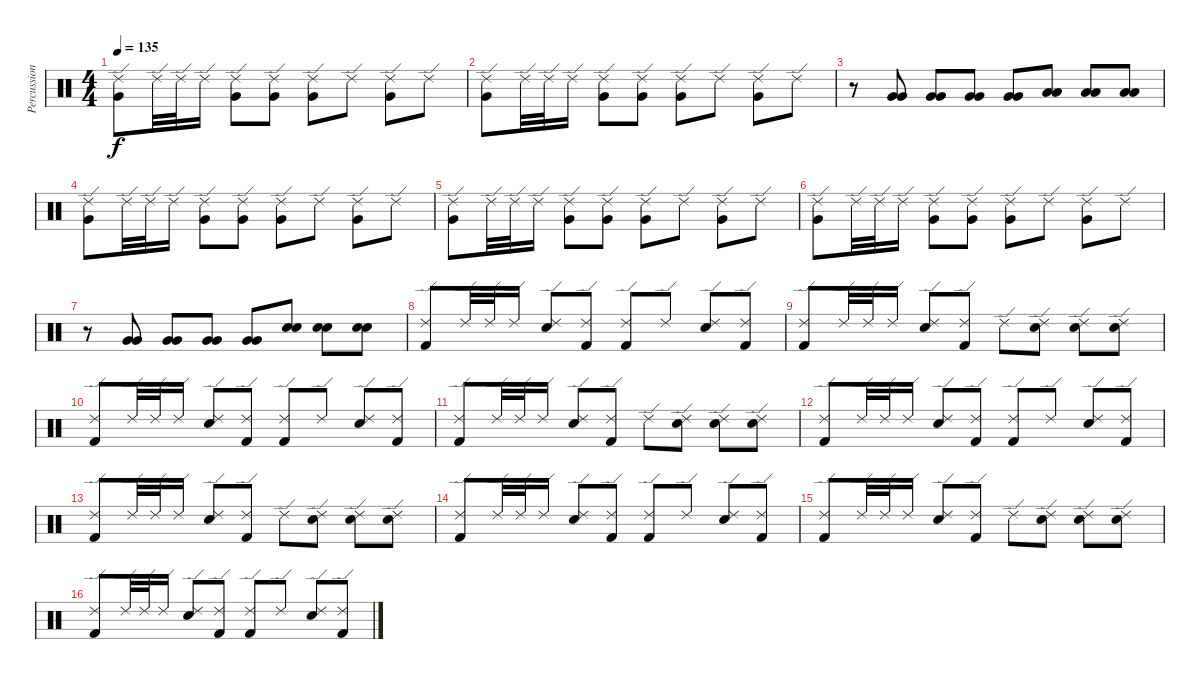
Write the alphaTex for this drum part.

\track ("Percussions" "Percussion") {instrument percussion}
\staff {score}
\articulation defaults
\ts (4 4)
\tempo 135
\clef neutral
\ks c
("Very Low Tom (hit)" "Ride (edge) 2").8{dy f} "Ride (edge) 2".32 "Ride (edge) 2".32 "Ride (edge) 2".16 ("Very Low Tom (hit)" "Ride (edge) 2").8 ("Very Low Tom (hit)" "Ride (edge) 2").8 ("Very Low Tom (hit)" "Ride (edge) 2").8 "Ride (edge) 2".8 ("Very Low Tom (hit)" "Ride (edge) 2").8 "Ride (edge) 2".8 |
("Very Low Tom (hit)" "Ride (edge) 2").8 "Ride (edge) 2".32 "Ride (edge) 2".32 "Ride (edge) 2".16 ("Very Low Tom (hit)" "Ride (edge) 2").8 ("Very Low Tom (hit)" "Ride (edge) 2").8 ("Very Low Tom (hit)" "Ride (edge) 2").8 "Ride (edge) 2".8 ("Very Low Tom (hit)" "Ride (edge) 2").8 "Ride (edge) 2".8 |
r.8 ("Very Low Tom (hit)" "Very Low Tom (hit)").8 ("Very Low Tom (hit)" "Very Low Tom (hit)").8 ("Very Low Tom (hit)" "Very Low Tom (hit)").8 ("Very Low Tom (hit)" "Very Low Tom (hit)").8 ("Low Floor Tom (hit)" "Low Floor Tom (hit)").8 ("Low Floor Tom (hit)" "Low Floor Tom (hit)").8 ("Low Floor Tom (hit)" "Low Floor Tom (hit)").8 |
("Very Low Tom (hit)" "Ride (edge) 2").8 "Ride (edge) 2".32 "Ride (edge) 2".32 "Ride (edge) 2".16 ("Very Low Tom (hit)" "Ride (edge) 2").8 ("Very Low Tom (hit)" "Ride (edge) 2").8 ("Very Low Tom (hit)" "Ride (edge) 2").8 "Ride (edge) 2".8 ("Very Low Tom (hit)" "Ride (edge) 2").8 "Ride (edge) 2".8 |
("Very Low Tom (hit)" "Ride (edge) 2").8 "Ride (edge) 2".32 "Ride (edge) 2".32 "Ride (edge) 2".16 ("Very Low Tom (hit)" "Ride (edge) 2").8 ("Very Low Tom (hit)" "Ride (edge) 2").8 ("Very Low Tom (hit)" "Ride (edge) 2").8 "Ride (edge) 2".8 ("Very Low Tom (hit)" "Ride (edge) 2").8 "Ride (edge) 2".8 |
("Very Low Tom (hit)" "Ride (edge) 2").8 "Ride (edge) 2".32 "Ride (edge) 2".32 "Ride (edge) 2".16 ("Very Low Tom (hit)" "Ride (edge) 2").8 ("Very Low Tom (hit)" "Ride (edge) 2").8 ("Very Low Tom (hit)" "Ride (edge) 2").8 "Ride (edge) 2".8 ("Very Low Tom (hit)" "Ride (edge) 2").8 "Ride (edge) 2".8 |
r.8 ("Very Low Tom (hit)" "Very Low Tom (hit)").8 ("Very Low Tom (hit)" "Very Low Tom (hit)").8 ("Very Low Tom (hit)" "Very Low Tom (hit)").8 ("Very Low Tom (hit)" "Very Low Tom (hit)").8 ("Snare (hit) 2" "Snare (hit) 2").8 ("Snare (hit) 2" "Snare (hit) 2").8 ("Snare (hit) 2" "Snare (hit) 2").8 |
("Kick (hit) 2" "Ride (edge) 2").8 "Ride (edge) 2".32 "Ride (edge) 2".32 "Ride (edge) 2".16 ("Snare (hit) 2" "Ride (edge) 2").8 ("Kick (hit) 2" "Ride (edge) 2").8 ("Kick (hit) 2" "Ride (edge) 2").8 "Ride (edge) 2".8 ("Snare (hit) 2" "Ride (edge) 2").8 ("Kick (hit) 2" "Ride (edge) 2").8 |
("Kick (hit) 2" "Ride (edge) 2").8 "Ride (edge) 2".32 "Ride (edge) 2".32 "Ride (edge) 2".16 ("Snare (hit) 2" "Ride (edge) 2").8 ("Kick (hit) 2" "Ride (edge) 2").8 "Ride (edge) 2".8 ("Snare (hit) 2" "Ride (edge) 2").8 ("Snare (hit) 2" "Ride (edge) 2").8 ("Snare (hit) 2" "Ride (edge) 2").8 |
("Kick (hit) 2" "Ride (edge) 2").8 "Ride (edge) 2".32 "Ride (edge) 2".32 "Ride (edge) 2".16 ("Snare (hit) 2" "Ride (edge) 2").8 ("Kick (hit) 2" "Ride (edge) 2").8 ("Kick (hit) 2" "Ride (edge) 2").8 "Ride (edge) 2".8 ("Snare (hit) 2" "Ride (edge) 2").8 ("Kick (hit) 2" "Ride (edge) 2").8 |
("Kick (hit) 2" "Ride (edge) 2").8 "Ride (edge) 2".32 "Ride (edge) 2".32 "Ride (edge) 2".16 ("Snare (hit) 2" "Ride (edge) 2").8 ("Kick (hit) 2" "Ride (edge) 2").8 "Ride (edge) 2".8 ("Snare (hit) 2" "Ride (edge) 2").8 ("Snare (hit) 2" "Ride (edge) 2").8 ("Snare (hit) 2" "Ride (edge) 2").8 |
("Kick (hit) 2" "Ride (edge) 2").8 "Ride (edge) 2".32 "Ride (edge) 2".32 "Ride (edge) 2".16 ("Snare (hit) 2" "Ride (edge) 2").8 ("Kick (hit) 2" "Ride (edge) 2").8 ("Kick (hit) 2" "Ride (edge) 2").8 "Ride (edge) 2".8 ("Snare (hit) 2" "Ride (edge) 2").8 ("Kick (hit) 2" "Ride (edge) 2").8 |
("Kick (hit) 2" "Ride (edge) 2").8 "Ride (edge) 2".32 "Ride (edge) 2".32 "Ride (edge) 2".16 ("Snare (hit) 2" "Ride (edge) 2").8 ("Kick (hit) 2" "Ride (edge) 2").8 "Ride (edge) 2".8 ("Snare (hit) 2" "Ride (edge) 2").8 ("Snare (hit) 2" "Ride (edge) 2").8 ("Snare (hit) 2" "Ride (edge) 2").8 |
("Kick (hit) 2" "Ride (edge) 2").8 "Ride (edge) 2".32 "Ride (edge) 2".32 "Ride (edge) 2".16 ("Snare (hit) 2" "Ride (edge) 2").8 ("Kick (hit) 2" "Ride (edge) 2").8 ("Kick (hit) 2" "Ride (edge) 2").8 "Ride (edge) 2".8 ("Snare (hit) 2" "Ride (edge) 2").8 ("Kick (hit) 2" "Ride (edge) 2").8 |
("Kick (hit) 2" "Ride (edge) 2").8 "Ride (edge) 2".32 "Ride (edge) 2".32 "Ride (edge) 2".16 ("Snare (hit) 2" "Ride (edge) 2").8 ("Kick (hit) 2" "Ride (edge) 2").8 "Ride (edge) 2".8 ("Snare (hit) 2" "Ride (edge) 2").8 ("Snare (hit) 2" "Ride (edge) 2").8 ("Snare (hit) 2" "Ride (edge) 2").8 |
("Kick (hit) 2" "Ride (edge) 2").8 "Ride (edge) 2".32 "Ride (edge) 2".32 "Ride (edge) 2".16 ("Snare (hit) 2" "Ride (edge) 2").8 ("Kick (hit) 2" "Ride (edge) 2").8 ("Kick (hit) 2" "Ride (edge) 2").8 "Ride (edge) 2".8 ("Snare (hit) 2" "Ride (edge) 2").8 ("Kick (hit) 2" "Ride (edge) 2").8
